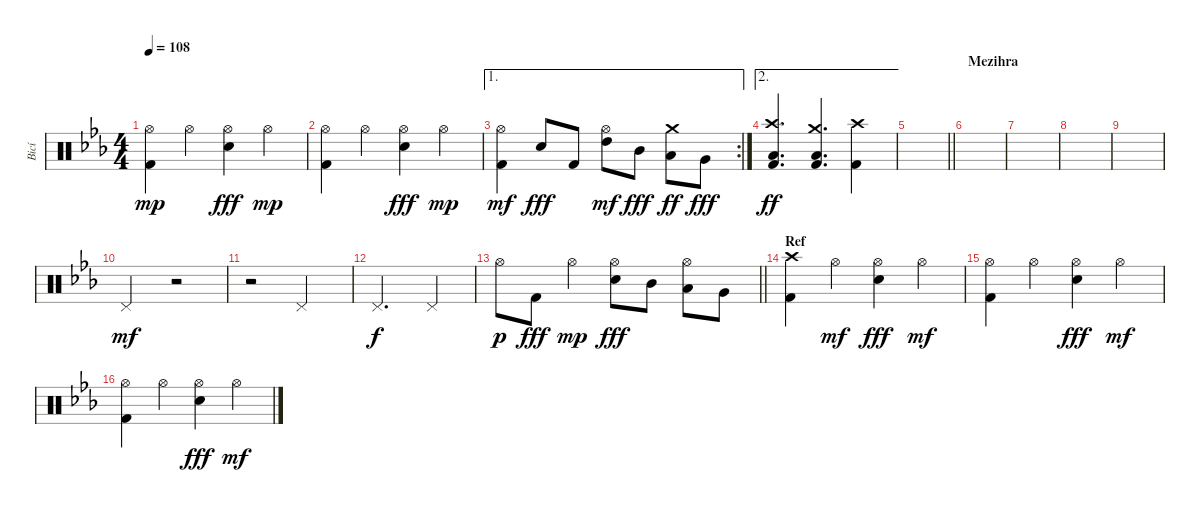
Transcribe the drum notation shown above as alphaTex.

\track ("Bicí" "Bicí") {instrument percussion}
\staff {score}
\articulation defaults
\ts (4 4)
\tempo 108
\clef neutral
\ks eb
("Kick (hit) 2" "Hi-Hat (open)").4{dy mp} "Hi-Hat (open)".4 ("Hi-Hat (open)" "Snare (hit) 2").4{dy fff} "Hi-Hat (open)".4{dy mp} |
("Kick (hit) 2" "Hi-Hat (open)").4 "Hi-Hat (open)".4 ("Hi-Hat (open)" "Snare (hit) 2").4{dy fff} "Hi-Hat (open)".4{dy mp} |
\ae 1
\rc 2
("Kick (hit) 2" "Hi-Hat (open)").4{dy mf} "Snare (hit) 2".8{dy fff} "Kick (hit) 2".8 ("High Tom (hit)" "Hi-Hat (open)").8{dy mf} "Mid Tom (hit)".8{dy fff} ("Low Tom (hit)" "Crash medium (hit)").8{dy ff} "Very Low Tom (hit)".8{dy fff} |
\ae 2
("Crash high (hit)" "Kick (hit) 2" "Low Floor Tom (hit)").4{d dy ff} ("Crash medium (hit)" "Low Floor Tom (hit)" "Kick (hit) 2").4{d} ("Crash high (hit)" "Kick (hit) 2").4 |
\barLineRight lightlight
|
\section ("" "Mezihra")
|
|
|
|
"Pedal Hi-Hat (hit)".2{dy mf} r.2 |
r.2 "Pedal Hi-Hat (hit)".2 |
"Pedal Hi-Hat (hit)".2{d dy f} "Pedal Hi-Hat (hit)".4 |
\barLineRight lightlight "Hi-Hat (open)".8{dy p} "Kick (hit) 2".8{dy fff} "Hi-Hat (open)".4{dy mp}
("Hi-Hat (open)" "Snare (hit) 2").8{dy fff} "Mid Tom (hit)".8 ("Hi-Hat (open)" "Low Tom (hit)").8 "Very Low Tom (hit)".8 |
\section ("" "Ref")
("Kick (hit) 2" "Crash high (hit)").4 "Hi-Hat (open)".4{dy mf} ("Hi-Hat (open)" "Snare (hit) 2").4{dy fff} "Hi-Hat (open)".4{dy mf} |
("Kick (hit) 2" "Hi-Hat (open)").4 "Hi-Hat (open)".4 ("Hi-Hat (open)" "Snare (hit) 2").4{dy fff} "Hi-Hat (open)".4{dy mf} |
("Kick (hit) 2" "Hi-Hat (open)").4 "Hi-Hat (open)".4 ("Hi-Hat (open)" "Snare (hit) 2").4{dy fff} "Hi-Hat (open)".4{dy mf}
